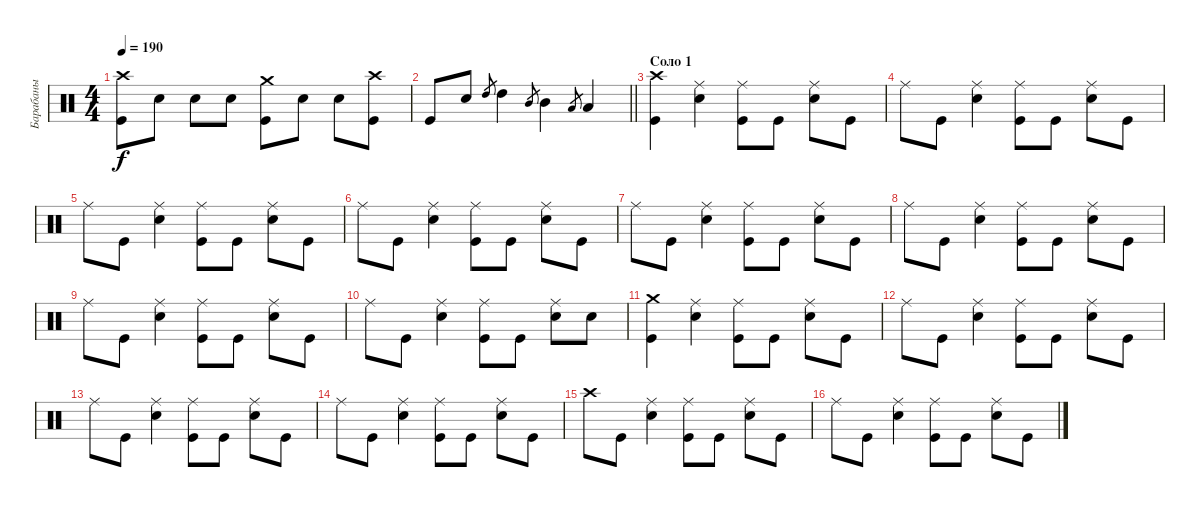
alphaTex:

\track ("Барабаны" "Барабаны") {instrument percussion}
\staff {score}
\articulation defaults
\ts (4 4)
\tempo 190
\clef neutral
\ks c
("Kick (hit)" "Crash high (hit)").8{dy f} "Snare (hit) 2".8 "Snare (hit) 2".8 "Snare (hit) 2".8 ("Kick (hit)" "Crash medium (hit)").8 "Snare (hit) 2".8 "Snare (hit) 2".8 ("Kick (hit)" "Crash high (hit)").8 |
\barLineRight lightlight "Kick (hit)".8 "Snare (hit) 2".8 "High Tom (hit)".8{gr} "High Tom (hit)".4 "Mid Tom (hit)".8{gr} "Mid Tom (hit)".4 "Low Tom (hit)".8{gr} "Low Tom (hit)".4
|
\section ("" "Соло 1")
("Kick (hit)" "Crash high (hit)").4 ("Snare (hit) 2" "Ride (middle)").4 ("Kick (hit)" "Ride (middle)").8 "Kick (hit)".8 ("Snare (hit) 2" "Ride (middle)").8 "Kick (hit)".8 |
"Ride (middle)".8 "Kick (hit)".8 ("Snare (hit) 2" "Ride (middle)").4 ("Kick (hit)" "Ride (middle)").8 "Kick (hit)".8 ("Snare (hit) 2" "Ride (middle)").8 "Kick (hit)".8 |
"Ride (middle)".8 "Kick (hit)".8 ("Snare (hit) 2" "Ride (middle)").4 ("Kick (hit)" "Ride (middle)").8 "Kick (hit)".8 ("Snare (hit) 2" "Ride (middle)").8 "Kick (hit)".8 |
"Ride (middle)".8 "Kick (hit)".8 ("Snare (hit) 2" "Ride (middle)").4 ("Kick (hit)" "Ride (middle)").8 "Kick (hit)".8 ("Snare (hit) 2" "Ride (middle)").8 "Kick (hit)".8 |
"Ride (middle)".8 "Kick (hit)".8 ("Snare (hit) 2" "Ride (middle)").4 ("Kick (hit)" "Ride (middle)").8 "Kick (hit)".8 ("Snare (hit) 2" "Ride (middle)").8 "Kick (hit)".8 |
"Ride (middle)".8 "Kick (hit)".8 ("Snare (hit) 2" "Ride (middle)").4 ("Kick (hit)" "Ride (middle)").8 "Kick (hit)".8 ("Snare (hit) 2" "Ride (middle)").8 "Kick (hit)".8 |
"Ride (middle)".8 "Kick (hit)".8 ("Snare (hit) 2" "Ride (middle)").4 ("Kick (hit)" "Ride (middle)").8 "Kick (hit)".8 ("Snare (hit) 2" "Ride (middle)").8 "Kick (hit)".8 |
"Ride (middle)".8 "Kick (hit)".8 ("Snare (hit) 2" "Ride (middle)").4 ("Kick (hit)" "Ride (middle)").8 "Kick (hit)".8 ("Snare (hit) 2" "Ride (middle)").8 "Snare (hit) 2".8 |
("Kick (hit)" "Crash medium (hit)").4 ("Snare (hit) 2" "Ride (middle)").4 ("Kick (hit)" "Ride (middle)").8 "Kick (hit)".8 ("Snare (hit) 2" "Ride (middle)").8 "Kick (hit)".8 |
"Ride (middle)".8 "Kick (hit)".8 ("Snare (hit) 2" "Ride (middle)").4 ("Kick (hit)" "Ride (middle)").8 "Kick (hit)".8 ("Snare (hit) 2" "Ride (middle)").8 "Kick (hit)".8 |
"Ride (middle)".8 "Kick (hit)".8 ("Snare (hit) 2" "Ride (middle)").4 ("Kick (hit)" "Ride (middle)").8 "Kick (hit)".8 ("Snare (hit) 2" "Ride (middle)").8 "Kick (hit)".8 |
"Ride (middle)".8 "Kick (hit)".8 ("Snare (hit) 2" "Ride (middle)").4 ("Kick (hit)" "Ride (middle)").8 "Kick (hit)".8 ("Snare (hit) 2" "Ride (middle)").8 "Kick (hit)".8 |
"Crash high (hit)".8 "Kick (hit)".8 ("Snare (hit) 2" "Ride (middle)").4 ("Kick (hit)" "Ride (middle)").8 "Kick (hit)".8 ("Snare (hit) 2" "Ride (middle)").8 "Kick (hit)".8 |
"Ride (middle)".8 "Kick (hit)".8 ("Snare (hit) 2" "Ride (middle)").4 ("Kick (hit)" "Ride (middle)").8 "Kick (hit)".8 ("Snare (hit) 2" "Ride (middle)").8 "Kick (hit)".8
